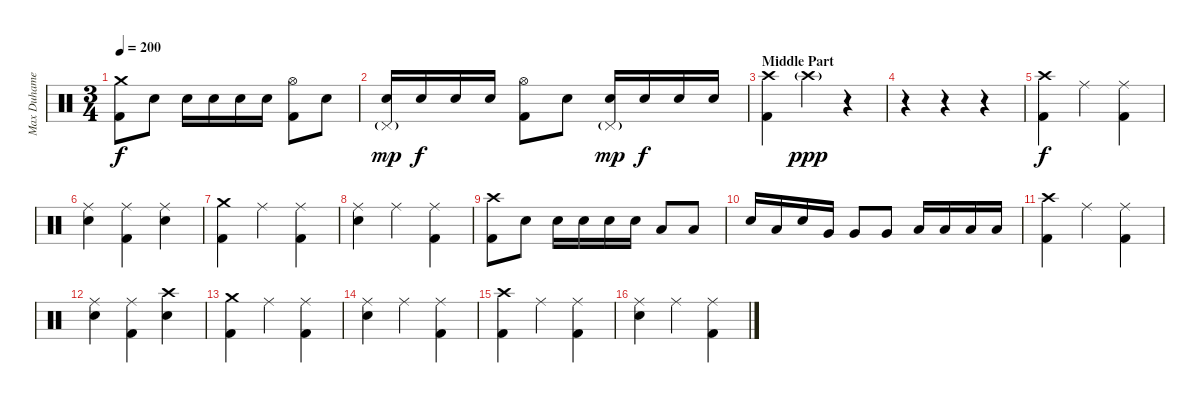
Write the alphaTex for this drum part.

\track ("Max Duhamel" "Max Duhame") {instrument percussion}
\staff {score}
\articulation defaults
\ts (3 4)
\tempo 200
\clef neutral
\ks c
("Crash medium (hit)" "Kick (hit) 2").8{dy f} "Electric Snare (hit)".8 "Electric Snare (hit)".16 "Electric Snare (hit)".16 "Electric Snare (hit)".16 "Electric Snare (hit)".16 ("Hi-Hat (open)" "Kick (hit) 2").8 "Electric Snare (hit)".8 |
("Pedal Hi-Hat (hit)"{g} "Electric Snare (hit)").16{dy mp} "Electric Snare (hit)".16{dy f} "Electric Snare (hit)".16 "Electric Snare (hit)".16 ("Hi-Hat (open)" "Kick (hit) 2").8 "Electric Snare (hit)".8 ("Pedal Hi-Hat (hit)"{g} "Electric Snare (hit)").16{dy mp} "Electric Snare (hit)".16{dy f} "Electric Snare (hit)".16 "Electric Snare (hit)".16 |
\section ("" "Middle Part")
("Crash high (hit)" "Kick (hit) 2").4 "Crash high (hit)"{g}.4{dy ppp} r.4 |
r.4 r.4 r.4 |
("Crash high (hit)" "Kick (hit) 2").4{dy f} "Ride (middle)".4 ("Ride (middle)" "Kick (hit) 2").4 |
("Ride (middle)" "Electric Snare (hit)").4 ("Ride (middle)" "Kick (hit) 2").4 ("Ride (middle)" "Electric Snare (hit)").4 |
("Crash medium (hit)" "Kick (hit) 2").4 "Ride (middle)".4 ("Ride (middle)" "Kick (hit) 2").4 |
("Ride (middle)" "Electric Snare (hit)").4 "Ride (middle)".4 ("Ride (middle)" "Kick (hit) 2").4 |
("Crash high (hit)" "Kick (hit) 2").8 "Electric Snare (hit)".8 "Electric Snare (hit)".16 "Electric Snare (hit)".16 "Electric Snare (hit)".16 "Electric Snare (hit)".16 "Low Tom (hit)".8 "Low Tom (hit)".8 |
"Electric Snare (hit)".16 "Low Tom (hit)".16 "Electric Snare (hit)".16 "Very Low Tom (hit)".16 "Very Low Tom (hit)".8 "Very Low Tom (hit)".8 "Low Floor Tom (hit)".16 "Low Floor Tom (hit)".16 "Low Floor Tom (hit)".16 "Low Floor Tom (hit)".16 |
\section ("" "")
("Crash high (hit)" "Kick (hit) 2").4 "Ride (middle)".4 ("Ride (middle)" "Kick (hit) 2").4 |
("Ride (middle)" "Electric Snare (hit)").4 ("Ride (middle)" "Kick (hit) 2").4 ("Crash high (hit)" "Electric Snare (hit)").4 |
("Crash medium (hit)" "Kick (hit) 2").4 "Ride (middle)".4 ("Ride (middle)" "Kick (hit) 2").4 |
("Ride (middle)" "Electric Snare (hit)").4 "Ride (middle)".4 ("Ride (middle)" "Kick (hit) 2").4 |
("Crash high (hit)" "Kick (hit) 2").4 "Ride (middle)".4 ("Ride (middle)" "Kick (hit) 2").4 |
("Ride (middle)" "Electric Snare (hit)").4 "Ride (middle)".4 ("Ride (middle)" "Kick (hit) 2").4
